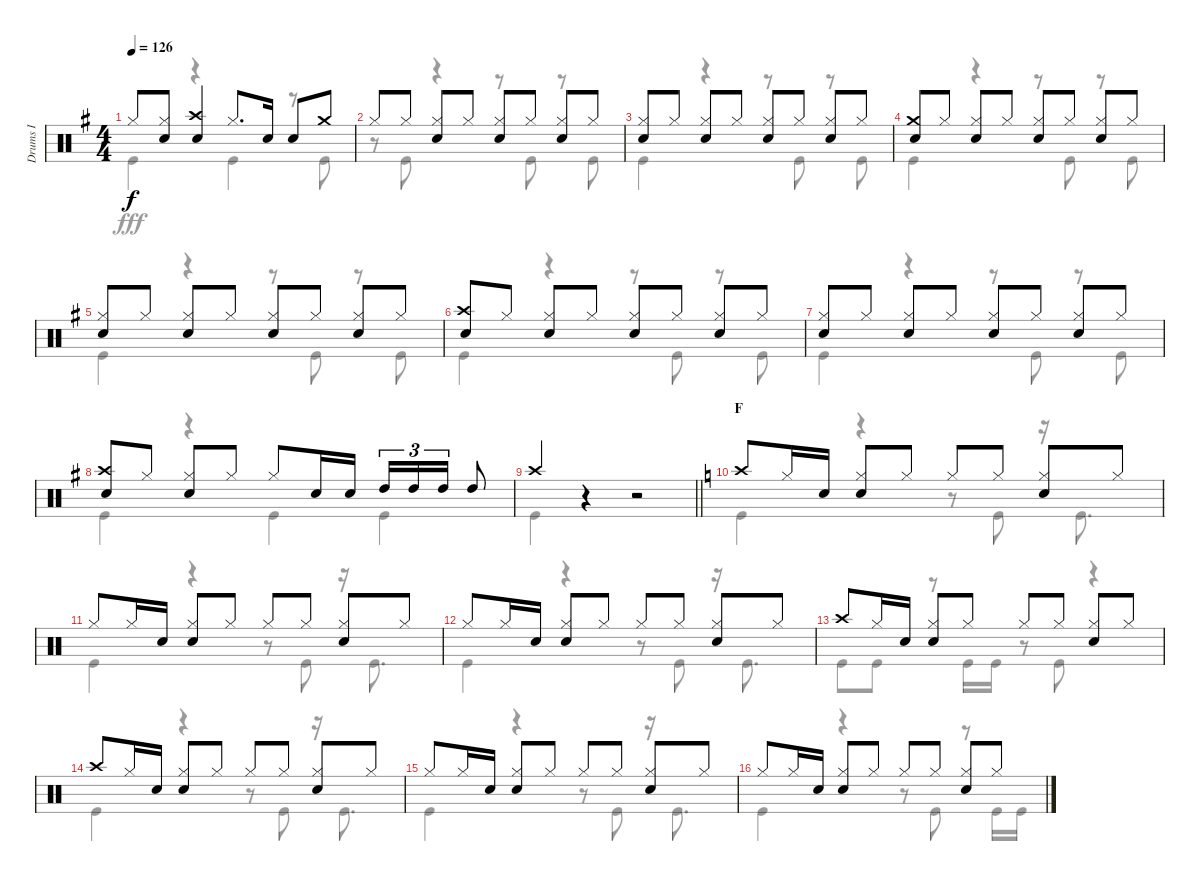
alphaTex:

\track ("Drums I" "Drums I") {instrument percussion}
\staff {score}
\articulation defaults
\voice
\ts (4 4)
\tempo 126
\clef neutral
\ks g "Hi-Hat (closed)".8{dy f}
("Hi-Hat (closed)" "Snare (hit) 2").8 ("Crash high (hit)" "Snare (hit) 2").4 "Hi-Hat (closed)".8{d} "Snare (hit) 2".16 "Snare (hit) 2".8 "Crash medium (hit)".8 |
"Hi-Hat (closed)".8 "Hi-Hat (closed)".8 ("Hi-Hat (closed)" "Snare (hit) 2").8 "Hi-Hat (closed)".8 ("Hi-Hat (closed)" "Snare (hit) 2").8 "Hi-Hat (closed)".8 ("Hi-Hat (closed)" "Snare (hit) 2").8 "Hi-Hat (closed)".8 |
("Hi-Hat (closed)" "Snare (hit) 2").8 "Hi-Hat (closed)".8 ("Hi-Hat (closed)" "Snare (hit) 2").8 "Hi-Hat (closed)".8 ("Hi-Hat (closed)" "Snare (hit) 2").8 "Hi-Hat (closed)".8 ("Hi-Hat (closed)" "Snare (hit) 2").8 "Hi-Hat (closed)".8 |
("Crash medium (hit)" "Snare (hit) 2").8 "Hi-Hat (closed)".8 ("Hi-Hat (closed)" "Snare (hit) 2").8 "Hi-Hat (closed)".8 ("Hi-Hat (closed)" "Snare (hit) 2").8 "Hi-Hat (closed)".8 ("Hi-Hat (closed)" "Snare (hit) 2").8 "Hi-Hat (closed)".8 |
("Hi-Hat (closed)" "Snare (hit) 2").8 "Hi-Hat (closed)".8 ("Hi-Hat (closed)" "Snare (hit) 2").8 "Hi-Hat (closed)".8 ("Hi-Hat (closed)" "Snare (hit) 2").8 "Hi-Hat (closed)".8 ("Hi-Hat (closed)" "Snare (hit) 2").8 "Hi-Hat (closed)".8 |
("Crash high (hit)" "Snare (hit) 2").8 "Hi-Hat (closed)".8 ("Hi-Hat (closed)" "Snare (hit) 2").8 "Hi-Hat (closed)".8 ("Hi-Hat (closed)" "Snare (hit) 2").8 "Hi-Hat (closed)".8 ("Hi-Hat (closed)" "Snare (hit) 2").8 "Hi-Hat (closed)".8 |
("Hi-Hat (closed)" "Snare (hit) 2").8 "Hi-Hat (closed)".8 ("Hi-Hat (closed)" "Snare (hit) 2").8 "Hi-Hat (closed)".8 ("Hi-Hat (closed)" "Snare (hit) 2").8 "Hi-Hat (closed)".8 ("Hi-Hat (closed)" "Snare (hit) 2").8 "Hi-Hat (closed)".8 |
("Crash high (hit)" "Snare (hit) 2").8 "Hi-Hat (closed)".8 ("Hi-Hat (closed)" "Snare (hit) 2").8 "Hi-Hat (closed)".8 "Hi-Hat (closed)".8 "Snare (hit) 2".16 "Snare (hit) 2".16 "High Tom (hit)".16{tu (3 2)} "High Tom (hit)".16{tu (3 2)} "High Tom (hit)".16{tu (3 2)} "High Tom (hit)".8 |
\barLineRight lightlight "Crash high (hit)".4
r.4 r.2 |
\section ("" "F")
\ks c "Crash high (hit)".8 "Hi-Hat (closed)".16 "Snare (hit) 2".16
("Hi-Hat (closed)" "Snare (hit) 2").8 "Hi-Hat (closed)".8 "Hi-Hat (closed)".8 "Hi-Hat (closed)".8 ("Hi-Hat (closed)" "Snare (hit) 2").8 "Hi-Hat (closed)".8 |
"Hi-Hat (closed)".8 "Hi-Hat (closed)".16 "Snare (hit) 2".16 ("Hi-Hat (closed)" "Snare (hit) 2").8 "Hi-Hat (closed)".8 "Hi-Hat (closed)".8 "Hi-Hat (closed)".8 ("Hi-Hat (closed)" "Snare (hit) 2").8 "Hi-Hat (closed)".8 |
"Hi-Hat (closed)".8 "Hi-Hat (closed)".16 "Snare (hit) 2".16 ("Hi-Hat (closed)" "Snare (hit) 2").8 "Hi-Hat (closed)".8 "Hi-Hat (closed)".8 "Hi-Hat (closed)".8 ("Hi-Hat (closed)" "Snare (hit) 2").8 "Hi-Hat (closed)".8 |
"Crash high (hit)".8 "Hi-Hat (closed)".16 "Snare (hit) 2".16 ("Hi-Hat (closed)" "Snare (hit) 2").8 "Hi-Hat (closed)".8 "Hi-Hat (closed)".8 "Hi-Hat (closed)".8 ("Hi-Hat (closed)" "Snare (hit) 2").8 "Hi-Hat (closed)".8 |
"Crash high (hit)".8 "Hi-Hat (closed)".16 "Snare (hit) 2".16 ("Hi-Hat (closed)" "Snare (hit) 2").8 "Hi-Hat (closed)".8 "Hi-Hat (closed)".8 "Hi-Hat (closed)".8 ("Hi-Hat (closed)" "Snare (hit) 2").8 "Hi-Hat (closed)".8 |
"Hi-Hat (closed)".8 "Hi-Hat (closed)".16 "Snare (hit) 2".16 ("Hi-Hat (closed)" "Snare (hit) 2").8 "Hi-Hat (closed)".8 "Hi-Hat (closed)".8 "Hi-Hat (closed)".8 ("Hi-Hat (closed)" "Snare (hit) 2").8 "Hi-Hat (closed)".8 |
"Hi-Hat (closed)".8 "Hi-Hat (closed)".16 "Snare (hit) 2".16 ("Hi-Hat (closed)" "Snare (hit) 2").8 "Hi-Hat (closed)".8 "Hi-Hat (closed)".8 "Hi-Hat (closed)".8 ("Hi-Hat (closed)" "Snare (hit) 2").8 "Hi-Hat (closed)".8
\voice
\clef neutral
\ottava regular
\simile none
\ks g "Kick (hit)".4{dy fff}
r.4 "Kick (hit)".4 r.8 "Kick (hit)".8 |
r.8 "Kick (hit)".8 r.4 r.8 "Kick (hit)".8 r.8 "Kick (hit)".8 |
"Kick (hit)".4 r.4 r.8 "Kick (hit)".8 r.8 "Kick (hit)".8 |
"Kick (hit)".4 r.4 r.8 "Kick (hit)".8 r.8 "Kick (hit)".8 |
"Kick (hit)".4 r.4 r.8 "Kick (hit)".8 r.8 "Kick (hit)".8 |
"Kick (hit)".4 r.4 r.8 "Kick (hit)".8 r.8 "Kick (hit)".8 |
"Kick (hit)".4 r.4 r.8 "Kick (hit)".8 r.8 "Kick (hit)".8 |
"Kick (hit)".4 r.4 "Kick (hit)".4 "Kick (hit)".4 |
\barLineRight lightlight "Kick (hit)".4
r.4 r.2 |
\ks c "Kick (hit)".4
r.4 r.8 "Kick (hit)".8 r.16 "Kick (hit)".8{d} |
"Kick (hit)".4 r.4 r.8 "Kick (hit)".8 r.16 "Kick (hit)".8{d} |
"Kick (hit)".4 r.4 r.8 "Kick (hit)".8 r.16 "Kick (hit)".8{d} |
"Kick (hit)".8 "Kick (hit)".8 r.8 "Kick (hit)".16 "Kick (hit)".16 r.8 "Kick (hit)".8 r.4 |
"Kick (hit)".4 r.4 r.8 "Kick (hit)".8 r.16 "Kick (hit)".8{d} |
"Kick (hit)".4 r.4 r.8 "Kick (hit)".8 r.16 "Kick (hit)".8{d} |
"Kick (hit)".4 r.4 r.8 "Kick (hit)".8 r.8 "Kick (hit)".16 "Kick (hit)".16
